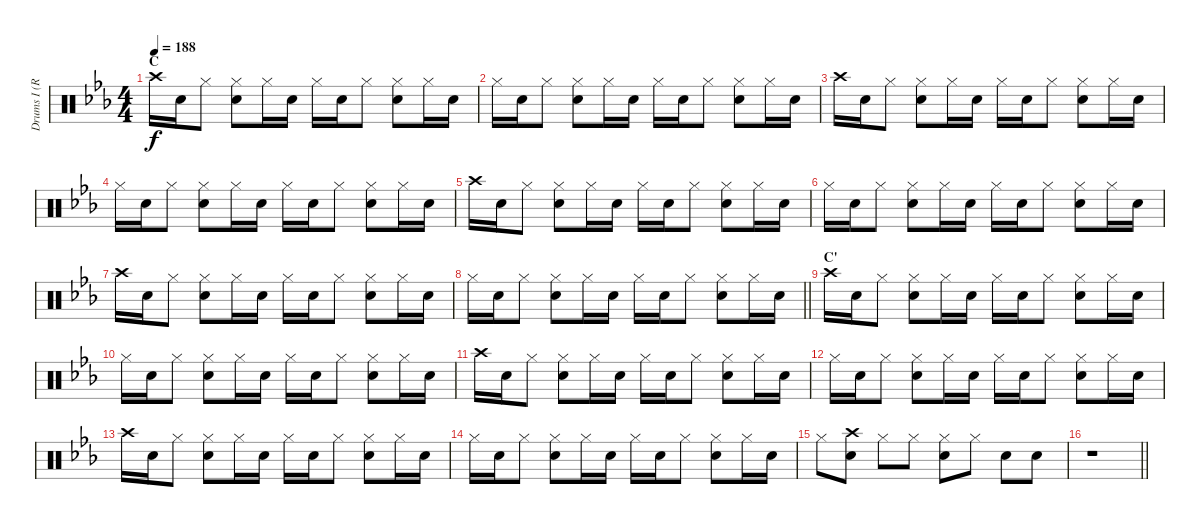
\track ("Drums I (RUKA)" "Drums I (R") {instrument percussion}
\staff {score}
\articulation defaults
\ts (4 4)
\section ("" "C")
\tempo 188
\clef neutral
\ks eb "Crash high (hit)".16{dy f} "Snare (hit) 2".16 "Hi-Hat (closed)".8
("Hi-Hat (closed)" "Snare (hit) 2").8 "Hi-Hat (closed)".16 "Snare (hit) 2".16 "Hi-Hat (closed)".16 "Snare (hit) 2".16 "Hi-Hat (closed)".8 ("Hi-Hat (closed)" "Snare (hit) 2").8 "Hi-Hat (closed)".16 "Snare (hit) 2".16 |
"Hi-Hat (closed)".16 "Snare (hit) 2".16 "Hi-Hat (closed)".8 ("Hi-Hat (closed)" "Snare (hit) 2").8 "Hi-Hat (closed)".16 "Snare (hit) 2".16 "Hi-Hat (closed)".16 "Snare (hit) 2".16 "Hi-Hat (closed)".8 ("Hi-Hat (closed)" "Snare (hit) 2").8 "Hi-Hat (closed)".16 "Snare (hit) 2".16 |
"Crash high (hit)".16 "Snare (hit) 2".16 "Hi-Hat (closed)".8 ("Hi-Hat (closed)" "Snare (hit) 2").8 "Hi-Hat (closed)".16 "Snare (hit) 2".16 "Hi-Hat (closed)".16 "Snare (hit) 2".16 "Hi-Hat (closed)".8 ("Hi-Hat (closed)" "Snare (hit) 2").8 "Hi-Hat (closed)".16 "Snare (hit) 2".16 |
"Hi-Hat (closed)".16 "Snare (hit) 2".16 "Hi-Hat (closed)".8 ("Hi-Hat (closed)" "Snare (hit) 2").8 "Hi-Hat (closed)".16 "Snare (hit) 2".16 "Hi-Hat (closed)".16 "Snare (hit) 2".16 "Hi-Hat (closed)".8 ("Hi-Hat (closed)" "Snare (hit) 2").8 "Hi-Hat (closed)".16 "Snare (hit) 2".16 |
"Crash high (hit)".16 "Snare (hit) 2".16 "Hi-Hat (closed)".8 ("Hi-Hat (closed)" "Snare (hit) 2").8 "Hi-Hat (closed)".16 "Snare (hit) 2".16 "Hi-Hat (closed)".16 "Snare (hit) 2".16 "Hi-Hat (closed)".8 ("Hi-Hat (closed)" "Snare (hit) 2").8 "Hi-Hat (closed)".16 "Snare (hit) 2".16 |
"Hi-Hat (closed)".16 "Snare (hit) 2".16 "Hi-Hat (closed)".8 ("Hi-Hat (closed)" "Snare (hit) 2").8 "Hi-Hat (closed)".16 "Snare (hit) 2".16 "Hi-Hat (closed)".16 "Snare (hit) 2".16 "Hi-Hat (closed)".8 ("Hi-Hat (closed)" "Snare (hit) 2").8 "Hi-Hat (closed)".16 "Snare (hit) 2".16 |
"Crash high (hit)".16 "Snare (hit) 2".16 "Hi-Hat (closed)".8 ("Hi-Hat (closed)" "Snare (hit) 2").8 "Hi-Hat (closed)".16 "Snare (hit) 2".16 "Hi-Hat (closed)".16 "Snare (hit) 2".16 "Hi-Hat (closed)".8 ("Hi-Hat (closed)" "Snare (hit) 2").8 "Hi-Hat (closed)".16 "Snare (hit) 2".16 |
\barLineRight lightlight "Hi-Hat (closed)".16 "Snare (hit) 2".16 "Hi-Hat (closed)".8
("Hi-Hat (closed)" "Snare (hit) 2").8 "Hi-Hat (closed)".16 "Snare (hit) 2".16 "Hi-Hat (closed)".16 "Snare (hit) 2".16 "Hi-Hat (closed)".8 ("Hi-Hat (closed)" "Snare (hit) 2").8 "Hi-Hat (closed)".16 "Snare (hit) 2".16 |
\section ("" "C'")
"Crash high (hit)".16 "Snare (hit) 2".16 "Hi-Hat (closed)".8 ("Hi-Hat (closed)" "Snare (hit) 2").8 "Hi-Hat (closed)".16 "Snare (hit) 2".16 "Hi-Hat (closed)".16 "Snare (hit) 2".16 "Hi-Hat (closed)".8 ("Hi-Hat (closed)" "Snare (hit) 2").8 "Hi-Hat (closed)".16 "Snare (hit) 2".16 |
"Hi-Hat (closed)".16 "Snare (hit) 2".16 "Hi-Hat (closed)".8 ("Hi-Hat (closed)" "Snare (hit) 2").8 "Hi-Hat (closed)".16 "Snare (hit) 2".16 "Hi-Hat (closed)".16 "Snare (hit) 2".16 "Hi-Hat (closed)".8 ("Hi-Hat (closed)" "Snare (hit) 2").8 "Hi-Hat (closed)".16 "Snare (hit) 2".16 |
"Crash high (hit)".16 "Snare (hit) 2".16 "Hi-Hat (closed)".8 ("Hi-Hat (closed)" "Snare (hit) 2").8 "Hi-Hat (closed)".16 "Snare (hit) 2".16 "Hi-Hat (closed)".16 "Snare (hit) 2".16 "Hi-Hat (closed)".8 ("Hi-Hat (closed)" "Snare (hit) 2").8 "Hi-Hat (closed)".16 "Snare (hit) 2".16 |
"Hi-Hat (closed)".16 "Snare (hit) 2".16 "Hi-Hat (closed)".8 ("Hi-Hat (closed)" "Snare (hit) 2").8 "Hi-Hat (closed)".16 "Snare (hit) 2".16 "Hi-Hat (closed)".16 "Snare (hit) 2".16 "Hi-Hat (closed)".8 ("Hi-Hat (closed)" "Snare (hit) 2").8 "Hi-Hat (closed)".16 "Snare (hit) 2".16 |
"Crash high (hit)".16 "Snare (hit) 2".16 "Hi-Hat (closed)".8 ("Hi-Hat (closed)" "Snare (hit) 2").8 "Hi-Hat (closed)".16 "Snare (hit) 2".16 "Hi-Hat (closed)".16 "Snare (hit) 2".16 "Hi-Hat (closed)".8 ("Hi-Hat (closed)" "Snare (hit) 2").8 "Hi-Hat (closed)".16 "Snare (hit) 2".16 |
"Hi-Hat (closed)".16 "Snare (hit) 2".16 "Hi-Hat (closed)".8 ("Hi-Hat (closed)" "Snare (hit) 2").8 "Hi-Hat (closed)".16 "Snare (hit) 2".16 "Hi-Hat (closed)".16 "Snare (hit) 2".16 "Hi-Hat (closed)".8 ("Hi-Hat (closed)" "Snare (hit) 2").8 "Hi-Hat (closed)".16 "Snare (hit) 2".16 |
"Hi-Hat (closed)".8 ("Crash high (hit)" "Snare (hit) 2").8 "Hi-Hat (closed)".8 "Hi-Hat (closed)".8 ("Hi-Hat (closed)" "Snare (hit) 2").8 "Hi-Hat (closed)".8 "Snare (hit) 2".8 "Snare (hit) 2".8 |
\barLineRight lightlight
r.1
